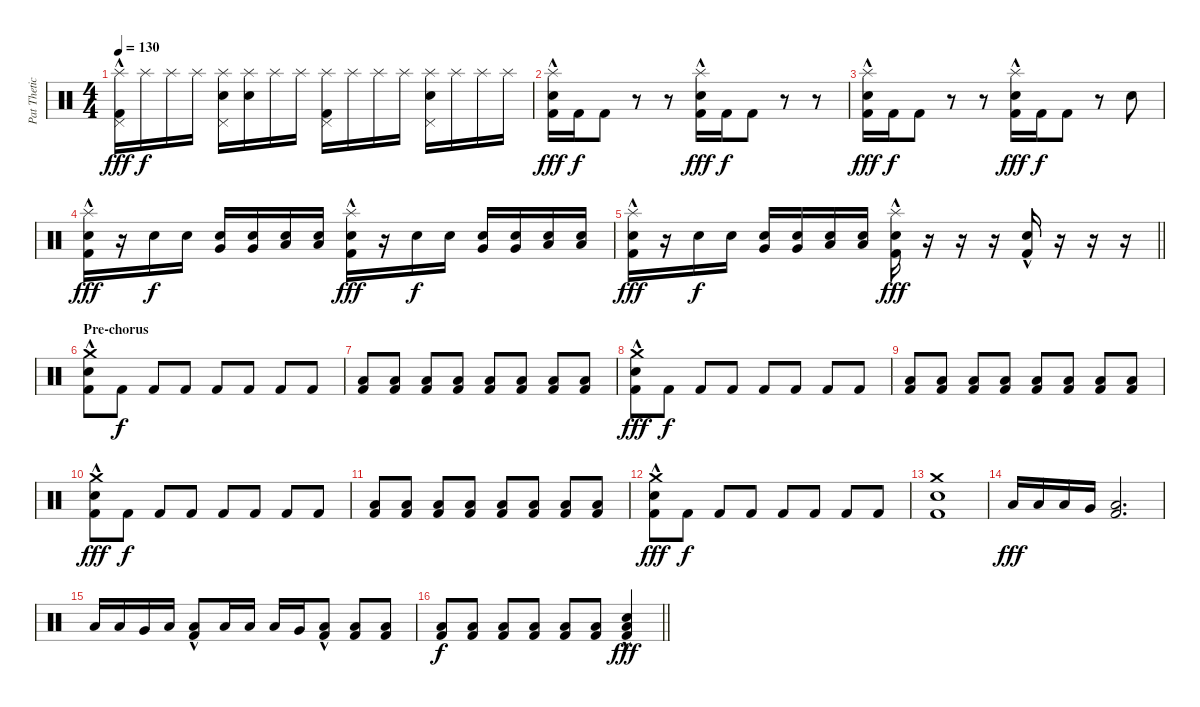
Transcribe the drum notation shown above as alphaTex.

\track ("Pat Thetic Drums" "Pat Thetic") {instrument percussion}
\staff {score}
\articulation defaults
\ts (4 4)
\tempo 130
\clef neutral
\ks c
("Splash (hit)" "Pedal Hi-Hat (hit)" "Kick (hit) 2"{hac}).16{dy fff} "Splash (hit)".16{dy f} "Splash (hit)".16 "Splash (hit)".16 ("Splash (hit)" "Pedal Hi-Hat (hit)" "Snare (hit) 2").16 ("Splash (hit)" "Snare (hit) 2").16 "Splash (hit)".16 "Splash (hit)".16 ("Splash (hit)" "Pedal Hi-Hat (hit)" "Kick (hit) 2").16 "Splash (hit)".16 "Splash (hit)".16 "Splash (hit)".16 ("Splash (hit)" "Pedal Hi-Hat (hit)" "Snare (hit) 2").16 "Splash (hit)".16 "Splash (hit)".16 "Splash (hit)".16 |
("Splash (hit)" "Kick (hit) 2"{hac} "Snare (hit) 2").16{dy fff} "Kick (hit) 2".16{dy f} "Kick (hit) 2".8 r.8 r.8 ("Splash (hit)" "Kick (hit) 2"{hac} "Snare (hit) 2").16{dy fff} "Kick (hit) 2".16{dy f} "Kick (hit) 2".8 r.8 r.8 |
("Splash (hit)" "Kick (hit) 2"{hac} "Snare (hit) 2").16{dy fff} "Kick (hit) 2".16{dy f} "Kick (hit) 2".8 r.8 r.8 ("Splash (hit)" "Kick (hit) 2"{hac} "Snare (hit) 2").16{dy fff} "Kick (hit) 2".16{dy f} "Kick (hit) 2".8 r.8 "Snare (hit) 2".8 |
("Splash (hit)" "Kick (hit) 2"{hac} "Snare (hit) 2").16{dy fff} r.16 "Snare (hit) 2".16{dy f} "Snare (hit) 2".16 ("Very Low Tom (hit)" "Snare (hit) 2").16 ("Very Low Tom (hit)" "Snare (hit) 2").16 ("Low Tom (hit)" "Snare (hit) 2").16 ("Low Tom (hit)" "Snare (hit) 2").16 ("Splash (hit)" "Kick (hit) 2" "Snare (hit) 2"{hac}).16{dy fff} r.16 "Snare (hit) 2".16{dy f} "Snare (hit) 2".16 ("Very Low Tom (hit)" "Snare (hit) 2").16 ("Very Low Tom (hit)" "Snare (hit) 2").16 ("Low Tom (hit)" "Snare (hit) 2").16 ("Low Tom (hit)" "Snare (hit) 2").16 |
\barLineRight lightlight
("Splash (hit)" "Kick (hit) 2"{hac} "Snare (hit) 2").16{dy fff} r.16 "Snare (hit) 2".16{dy f} "Snare (hit) 2".16 ("Very Low Tom (hit)" "Snare (hit) 2").16 ("Very Low Tom (hit)" "Snare (hit) 2").16 ("Low Tom (hit)" "Snare (hit) 2").16 ("Low Tom (hit)" "Snare (hit) 2").16 ("Splash (hit)" "Kick (hit) 2"{hac} "Snare (hit) 2").16{dy fff} r.16 r.16 r.16 ("Kick (hit) 2" "Snare (hit) 2"{hac}).16 r.16 r.16 r.16 |
\section ("" "Pre-chorus")
("Kick (hit) 2"{hac} "Snare (hit) 2" "Crash medium (hit)").8 "Kick (hit) 2".8{dy f volume 11} "Kick (hit) 2".8{volume 16} "Kick (hit) 2".8 "Kick (hit) 2".8 "Kick (hit) 2".8 "Kick (hit) 2".8 "Kick (hit) 2".8 |
("Kick (hit) 2" "Low Floor Tom (hit)").8 ("Kick (hit) 2" "Low Floor Tom (hit)").8 ("Kick (hit) 2" "Low Floor Tom (hit)").8 ("Kick (hit) 2" "Low Floor Tom (hit)").8 ("Kick (hit) 2" "Low Floor Tom (hit)").8 ("Kick (hit) 2" "Low Floor Tom (hit)").8 ("Kick (hit) 2" "Low Floor Tom (hit)").8 ("Kick (hit) 2" "Low Floor Tom (hit)").8 |
("Kick (hit) 2" "Snare (hit) 2"{hac} "Crash medium (hit)").8{dy fff} "Kick (hit) 2".8{dy f volume 11} "Kick (hit) 2".8{volume 16} "Kick (hit) 2".8 "Kick (hit) 2".8 "Kick (hit) 2".8 "Kick (hit) 2".8 "Kick (hit) 2".8 |
("Kick (hit) 2" "Low Floor Tom (hit)").8 ("Kick (hit) 2" "Low Floor Tom (hit)").8 ("Kick (hit) 2" "Low Floor Tom (hit)").8 ("Kick (hit) 2" "Low Floor Tom (hit)").8 ("Kick (hit) 2" "Low Floor Tom (hit)").8 ("Kick (hit) 2" "Low Floor Tom (hit)").8 ("Kick (hit) 2" "Low Floor Tom (hit)").8 ("Kick (hit) 2" "Low Floor Tom (hit)").8 |
("Kick (hit) 2" "Snare (hit) 2" "Crash medium (hit)"{hac}).8{dy fff} "Kick (hit) 2".8{dy f volume 11} "Kick (hit) 2".8{volume 16} "Kick (hit) 2".8 "Kick (hit) 2".8 "Kick (hit) 2".8 "Kick (hit) 2".8 "Kick (hit) 2".8 |
("Kick (hit) 2" "Low Floor Tom (hit)").8 ("Kick (hit) 2" "Low Floor Tom (hit)").8 ("Kick (hit) 2" "Low Floor Tom (hit)").8 ("Kick (hit) 2" "Low Floor Tom (hit)").8 ("Kick (hit) 2" "Low Floor Tom (hit)").8 ("Kick (hit) 2" "Low Floor Tom (hit)").8 ("Kick (hit) 2" "Low Floor Tom (hit)").8 ("Kick (hit) 2" "Low Floor Tom (hit)").8 |
("Kick (hit) 2"{hac} "Snare (hit) 2" "Crash medium (hit)").8{dy fff} "Kick (hit) 2".8{dy f volume 11} "Kick (hit) 2".8{volume 16} "Kick (hit) 2".8 "Kick (hit) 2".8 "Kick (hit) 2".8 "Kick (hit) 2".8 "Kick (hit) 2".8 |
("Kick (hit) 2" "Snare (hit) 2" "Crash medium (hit)").1 |
"Low Floor Tom (hit)".16{dy fff} "Low Floor Tom (hit)".16 "Low Tom (hit)".16 "Very Low Tom (hit)".16 ("Low Floor Tom (hit)" "Kick (hit) 2").2{d} |
"Low Floor Tom (hit)".16 "Low Floor Tom (hit)".16 "Very Low Tom (hit)".16 "Low Tom (hit)".16 ("Low Floor Tom (hit)" "Kick (hit) 2"{hac}).8 "Low Floor Tom (hit)".16 "Low Floor Tom (hit)".16 "Low Tom (hit)".16 "Very Low Tom (hit)".16 ("Low Floor Tom (hit)"{hac} "Kick (hit) 2").8 ("Low Floor Tom (hit)" "Kick (hit) 2").8 ("Low Floor Tom (hit)" "Kick (hit) 2").8 |
\barLineRight lightlight
("Kick (hit) 2" "Low Floor Tom (hit)").8{dy f volume 10} ("Kick (hit) 2" "Low Floor Tom (hit)").8{volume 16} ("Kick (hit) 2" "Low Floor Tom (hit)").8 ("Kick (hit) 2" "Low Floor Tom (hit)").8 ("Kick (hit) 2" "Low Floor Tom (hit)").8 ("Kick (hit) 2" "Low Floor Tom (hit)").8 ("Kick (hit) 2"{hac} "Low Floor Tom (hit)" "Snare (hit) 2").4{dy fff}
